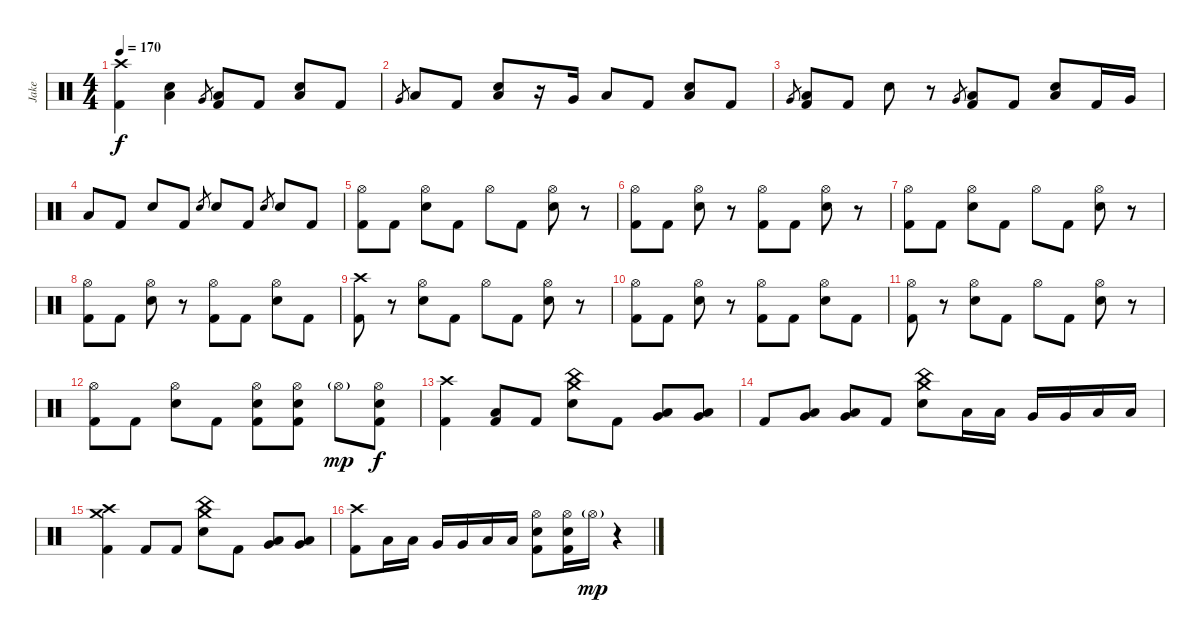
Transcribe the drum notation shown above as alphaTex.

\track ("Jake" "Jake") {instrument percussion}
\staff {score}
\articulation defaults
\ts (4 4)
\tempo 170
\clef neutral
\ks c
("Crash high (hit)" "Kick (hit) 2").4{dy f} ("Low Floor Tom (hit)" "Electric Snare (hit)").4 "Very Low Tom (hit)".8{gr} ("Low Floor Tom (hit)" "Kick (hit) 2").8 "Kick (hit) 2".8 ("Low Floor Tom (hit)" "Electric Snare (hit)").8 "Kick (hit) 2".8 |
"Very Low Tom (hit)".8{gr} "Low Floor Tom (hit)".8 "Kick (hit) 2".8 ("Low Floor Tom (hit)" "Electric Snare (hit)").8 r.16 "Very Low Tom (hit)".16 "Low Floor Tom (hit)".8 "Kick (hit) 2".8 ("Low Floor Tom (hit)" "Electric Snare (hit)").8 "Kick (hit) 2".8 |
"Very Low Tom (hit)".8{gr} ("Low Floor Tom (hit)" "Kick (hit) 2").8 "Kick (hit) 2".8 "Electric Snare (hit)".8 r.8 "Very Low Tom (hit)".8{gr} ("Low Floor Tom (hit)" "Kick (hit) 2").8 "Kick (hit) 2".8 ("Low Floor Tom (hit)" "Electric Snare (hit)").8 "Kick (hit) 2".16 "Very Low Tom (hit)".16 |
"Low Floor Tom (hit)".8 "Kick (hit) 2".8 "Electric Snare (hit)".8 "Kick (hit) 2".8 "Electric Snare (hit)".8{gr} "Electric Snare (hit)".8 "Kick (hit) 2".8 "Electric Snare (hit)".8{gr} "Electric Snare (hit)".8 "Kick (hit) 2".8 |
("Hi-Hat (open)" "Kick (hit) 2").8 "Kick (hit) 2".8 ("Hi-Hat (open)" "Electric Snare (hit)").8 "Kick (hit) 2".8 "Hi-Hat (open)".8 "Kick (hit) 2".8 ("Hi-Hat (open)" "Electric Snare (hit)").8 r.8 |
("Hi-Hat (open)" "Kick (hit) 2").8 "Kick (hit) 2".8 ("Hi-Hat (open)" "Electric Snare (hit)").8 r.8 ("Hi-Hat (open)" "Kick (hit) 2").8 "Kick (hit) 2".8 ("Hi-Hat (open)" "Electric Snare (hit)").8 r.8 |
("Hi-Hat (open)" "Kick (hit) 2").8 "Kick (hit) 2".8 ("Hi-Hat (open)" "Electric Snare (hit)").8 "Kick (hit) 2".8 "Hi-Hat (open)".8 "Kick (hit) 2".8 ("Hi-Hat (open)" "Electric Snare (hit)").8 r.8 |
("Hi-Hat (open)" "Kick (hit) 2").8 "Kick (hit) 2".8 ("Hi-Hat (open)" "Electric Snare (hit)").8 r.8 ("Hi-Hat (open)" "Kick (hit) 2").8 "Kick (hit) 2".8 ("Hi-Hat (open)" "Electric Snare (hit)").8 "Kick (hit) 2".8 |
("Crash high (hit)" "Kick (hit) 2").8 r.8 ("Hi-Hat (open)" "Electric Snare (hit)").8 "Kick (hit) 2".8 "Hi-Hat (open)".8 "Kick (hit) 2".8 ("Hi-Hat (open)" "Electric Snare (hit)").8 r.8 |
("Hi-Hat (open)" "Kick (hit) 2").8 "Kick (hit) 2".8 ("Hi-Hat (open)" "Electric Snare (hit)").8 r.8 ("Hi-Hat (open)" "Kick (hit) 2").8 "Kick (hit) 2".8 ("Hi-Hat (open)" "Electric Snare (hit)").8 "Kick (hit) 2".8 |
("Hi-Hat (open)" "Kick (hit) 2").8 r.8 ("Hi-Hat (open)" "Electric Snare (hit)").8 "Kick (hit) 2".8 "Hi-Hat (open)".8 "Kick (hit) 2".8 ("Hi-Hat (open)" "Electric Snare (hit)").8 r.8 |
("Hi-Hat (open)" "Kick (hit) 2").8 "Kick (hit) 2".8 ("Hi-Hat (open)" "Electric Snare (hit)").8 "Kick (hit) 2".8 ("Hi-Hat (open)" "Electric Snare (hit)" "Kick (hit) 2").8 ("Hi-Hat (open)" "Electric Snare (hit)" "Kick (hit) 2").8 "Hi-Hat (open)"{g}.8{dy mp volume 0} ("Hi-Hat (open)" "Electric Snare (hit)" "Kick (hit) 2").8{dy f volume 13} |
("Crash high (hit)" "Kick (hit) 2").4 ("Low Floor Tom (hit)" "Kick (hit) 2").8 "Kick (hit) 2".8 ("China (hit)" "Crash medium (hit)" "Electric Snare (hit)").8 "Kick (hit) 2".8 ("Very Low Tom (hit)" "Low Floor Tom (hit)").8 ("Very Low Tom (hit)" "Low Floor Tom (hit)").8 |
"Kick (hit) 2".8 ("Very Low Tom (hit)" "Low Floor Tom (hit)").8 ("Very Low Tom (hit)" "Low Floor Tom (hit)").8 "Kick (hit) 2".8 ("Crash medium (hit)" "China (hit)" "Electric Snare (hit)").8 "Low Tom (hit)".16 "Low Tom (hit)".16 "Very Low Tom (hit)".16 "Very Low Tom (hit)".16 "Low Floor Tom (hit)".16 "Low Floor Tom (hit)".16 |
("Crash high (hit)" "Crash medium (hit)" "Kick (hit) 2").4 "Kick (hit) 2".8 "Kick (hit) 2".8 ("Crash medium (hit)" "China (hit)" "Electric Snare (hit)").8 "Kick (hit) 2".8 ("Very Low Tom (hit)" "Low Floor Tom (hit)").8 ("Very Low Tom (hit)" "Low Floor Tom (hit)").8 |
("Crash high (hit)" "Kick (hit) 2").8 "Low Tom (hit)".16 "Low Tom (hit)".16 "Very Low Tom (hit)".16 "Very Low Tom (hit)".16 "Low Floor Tom (hit)".16 "Low Floor Tom (hit)".16 ("Hi-Hat (open)" "Electric Snare (hit)" "Kick (hit) 2").8 ("Hi-Hat (open)" "Electric Snare (hit)" "Kick (hit) 2").16 "Hi-Hat (open)"{g}.16{dy mp volume 0} r.4
